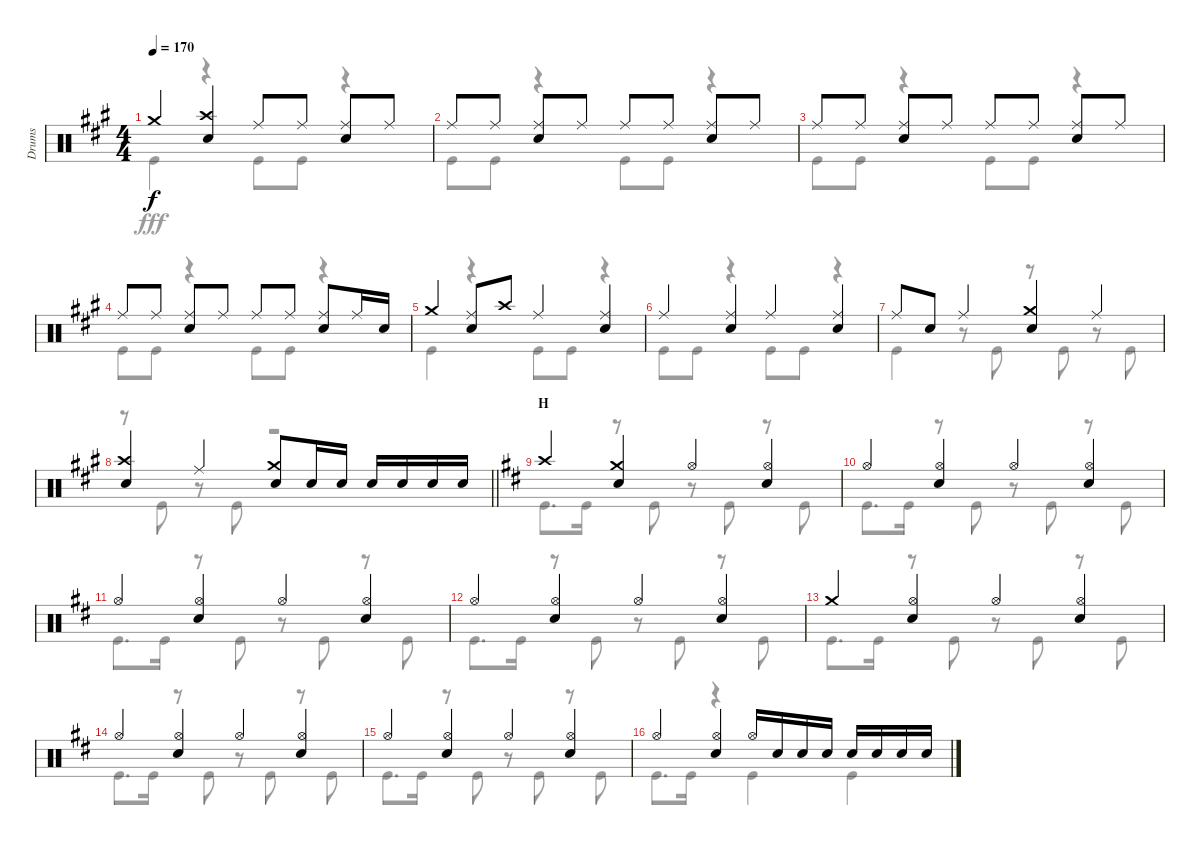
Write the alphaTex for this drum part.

\track ("Drums" "Drums") {instrument percussion}
\staff {score}
\articulation defaults
\voice
\ts (4 4)
\tempo 170
\clef neutral
\ks a "Crash medium (hit)".4{dy f}
("Crash high (hit)" "Snare (hit) 2").4 "Ride (middle)".8 "Ride (middle)".8 ("Ride (middle)" "Snare (hit) 2").8 "Ride (middle)".8 |
"Ride (middle)".8 "Ride (middle)".8 ("Ride (middle)" "Snare (hit) 2").8 "Ride (middle)".8 "Ride (middle)".8 "Ride (middle)".8 ("Ride (middle)" "Snare (hit) 2").8 "Ride (middle)".8 |
"Ride (middle)".8 "Ride (middle)".8 ("Ride (middle)" "Snare (hit) 2").8 "Ride (middle)".8 "Ride (middle)".8 "Ride (middle)".8 ("Ride (middle)" "Snare (hit) 2").8 "Ride (middle)".8 |
"Ride (middle)".8 "Ride (middle)".8 ("Ride (middle)" "Snare (hit) 2").8 "Ride (middle)".8 "Ride (middle)".8 "Ride (middle)".8 ("Ride (middle)" "Snare (hit) 2").8 "Ride (middle)".16 "Snare (hit) 2".16 |
"Crash medium (hit)".4 ("Ride (middle)" "Snare (hit) 2").8 "Crash high (hit)".8 "Ride (middle)".4 ("Ride (middle)" "Snare (hit) 2").4 |
"Ride (middle)".4 ("Ride (middle)" "Snare (hit) 2").4 "Ride (middle)".4 ("Ride (middle)" "Snare (hit) 2").4 |
"Ride (middle)".8 "Snare (hit) 2".8 "Ride (middle)".4 ("Crash medium (hit)" "Snare (hit) 2").4 "Ride (middle)".4 |
\barLineRight lightlight
("Crash high (hit)" "Snare (hit) 2").4 "Ride (middle)".4 ("Crash medium (hit)" "Snare (hit) 2").8 "Snare (hit) 2".16 "Snare (hit) 2".16 "Snare (hit) 2".16 "Snare (hit) 2".16 "Snare (hit) 2".16 "Snare (hit) 2".16 |
\section ("" "H")
\ks d "Crash high (hit)".4
("Crash medium (hit)" "Snare (hit) 2").4 "Hi-Hat (open)".4 ("Hi-Hat (open)" "Snare (hit) 2").4 |
"Hi-Hat (open)".4 ("Hi-Hat (open)" "Snare (hit) 2").4 "Hi-Hat (open)".4 ("Hi-Hat (open)" "Snare (hit) 2").4 |
"Hi-Hat (open)".4 ("Hi-Hat (open)" "Snare (hit) 2").4 "Hi-Hat (open)".4 ("Hi-Hat (open)" "Snare (hit) 2").4 |
"Hi-Hat (open)".4 ("Hi-Hat (open)" "Snare (hit) 2").4 "Hi-Hat (open)".4 ("Hi-Hat (open)" "Snare (hit) 2").4 |
"Crash medium (hit)".4 ("Hi-Hat (open)" "Snare (hit) 2").4 "Hi-Hat (open)".4 ("Hi-Hat (open)" "Snare (hit) 2").4 |
"Hi-Hat (open)".4 ("Hi-Hat (open)" "Snare (hit) 2").4 "Hi-Hat (open)".4 ("Hi-Hat (open)" "Snare (hit) 2").4 |
"Hi-Hat (open)".4 ("Hi-Hat (open)" "Snare (hit) 2").4 "Hi-Hat (open)".4 ("Hi-Hat (open)" "Snare (hit) 2").4 |
"Hi-Hat (open)".4 ("Hi-Hat (open)" "Snare (hit) 2").4 "Hi-Hat (open)".16 "Snare (hit) 2".16 "Snare (hit) 2".16 "Snare (hit) 2".16 "Snare (hit) 2".16 "Snare (hit) 2".16 "Snare (hit) 2".16 "Snare (hit) 2".16
\voice
\clef neutral
\ottava regular
\simile none
\ks a "Kick (hit)".4{dy fff}
r.4 "Kick (hit)".8 "Kick (hit)".8 r.4 |
"Kick (hit)".8 "Kick (hit)".8 r.4 "Kick (hit)".8 "Kick (hit)".8 r.4 |
"Kick (hit)".8 "Kick (hit)".8 r.4 "Kick (hit)".8 "Kick (hit)".8 r.4 |
"Kick (hit)".8 "Kick (hit)".8 r.4 "Kick (hit)".8 "Kick (hit)".8 r.4 |
"Kick (hit)".4 r.4 "Kick (hit)".8 "Kick (hit)".8 r.4 |
"Kick (hit)".8 "Kick (hit)".8 r.4 "Kick (hit)".8 "Kick (hit)".8 r.4 |
"Kick (hit)".4 r.8 "Kick (hit)".8 r.8 "Kick (hit)".8 r.8 "Kick (hit)".8 |
\barLineRight lightlight
r.8 "Kick (hit)".8 r.8 "Kick (hit)".8 r.2 |
\ks d "Kick (hit)".8{d} "Kick (hit)".16
r.8 "Kick (hit)".8 r.8 "Kick (hit)".8 r.8 "Kick (hit)".8 |
"Kick (hit)".8{d} "Kick (hit)".16 r.8 "Kick (hit)".8 r.8 "Kick (hit)".8 r.8 "Kick (hit)".8 |
"Kick (hit)".8{d} "Kick (hit)".16 r.8 "Kick (hit)".8 r.8 "Kick (hit)".8 r.8 "Kick (hit)".8 |
"Kick (hit)".8{d} "Kick (hit)".16 r.8 "Kick (hit)".8 r.8 "Kick (hit)".8 r.8 "Kick (hit)".8 |
"Kick (hit)".8{d} "Kick (hit)".16 r.8 "Kick (hit)".8 r.8 "Kick (hit)".8 r.8 "Kick (hit)".8 |
"Kick (hit)".8{d} "Kick (hit)".16 r.8 "Kick (hit)".8 r.8 "Kick (hit)".8 r.8 "Kick (hit)".8 |
"Kick (hit)".8{d} "Kick (hit)".16 r.8 "Kick (hit)".8 r.8 "Kick (hit)".8 r.8 "Kick (hit)".8 |
"Kick (hit)".8{d} "Kick (hit)".16 r.4 "Kick (hit)".4 "Kick (hit)".4
